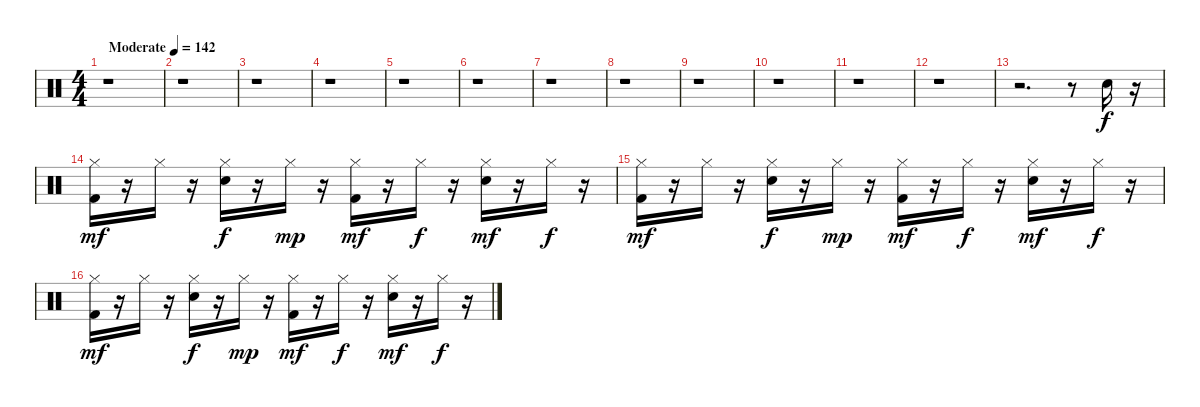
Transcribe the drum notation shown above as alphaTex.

\track "" {instrument percussion}
\staff {score}
\articulation defaults
\ts (4 4)
\tempo (142 "Moderate")
\clef neutral
\ks c
r.1{dy f} |
r.1 |
r.1 |
r.1 |
r.1 |
r.1 |
r.1 |
r.1 |
r.1 |
r.1 |
r.1 |
r.1 |
r.2{d} r.8 "Electric Snare (hit)".16 r.16 |
("Kick (hit) 2" "Hi-Hat (closed)").16{dy mf} r.16 "Hi-Hat (closed)".16 r.16 ("Hi-Hat (closed)" "Electric Snare (hit)").16{dy f} r.16 "Hi-Hat (closed)".16{dy mp} r.16 ("Kick (hit) 2" "Hi-Hat (closed)").16{dy mf} r.16 "Hi-Hat (closed)".16{dy f} r.16 ("Electric Snare (hit)" "Hi-Hat (closed)").16{dy mf} r.16 "Hi-Hat (closed)".16{dy f} r.16 |
("Kick (hit) 2" "Hi-Hat (closed)").16{dy mf} r.16 "Hi-Hat (closed)".16 r.16 ("Hi-Hat (closed)" "Electric Snare (hit)").16{dy f} r.16 "Hi-Hat (closed)".16{dy mp} r.16 ("Kick (hit) 2" "Hi-Hat (closed)").16{dy mf} r.16 "Hi-Hat (closed)".16{dy f} r.16 ("Electric Snare (hit)" "Hi-Hat (closed)").16{dy mf} r.16 "Hi-Hat (closed)".16{dy f} r.16 |
("Kick (hit) 2" "Hi-Hat (closed)").16{dy mf} r.16 "Hi-Hat (closed)".16 r.16 ("Electric Snare (hit)" "Hi-Hat (closed)").16{dy f} r.16 "Hi-Hat (closed)".16{dy mp} r.16 ("Kick (hit) 2" "Hi-Hat (closed)").16{dy mf} r.16 "Hi-Hat (closed)".16{dy f} r.16 ("Hi-Hat (closed)" "Electric Snare (hit)").16{dy mf} r.16 "Hi-Hat (closed)".16{dy f} r.16
